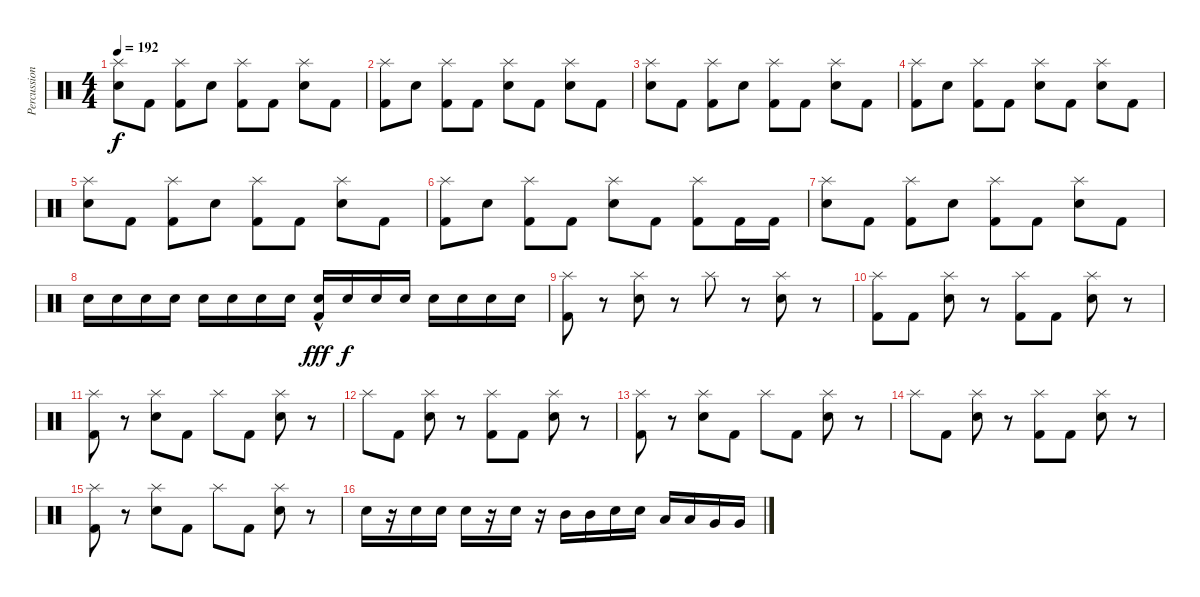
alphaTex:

\track ("Percussion" "Percussion") {instrument percussion}
\staff {score}
\articulation defaults
\ts (4 4)
\tempo 192
\clef neutral
\ks c
("Splash (hit)" "Electric Snare (hit)").8{dy f} "Kick (hit) 2".8 ("Splash (hit)" "Kick (hit) 2").8 "Electric Snare (hit)".8 ("Splash (hit)" "Kick (hit) 2").8 "Kick (hit) 2".8 ("Splash (hit)" "Electric Snare (hit)").8 "Kick (hit) 2".8 |
("Splash (hit)" "Kick (hit) 2").8 "Electric Snare (hit)".8 ("Splash (hit)" "Kick (hit) 2").8 "Kick (hit) 2".8 ("Splash (hit)" "Electric Snare (hit)").8 "Kick (hit) 2".8 ("Splash (hit)" "Electric Snare (hit)").8 "Kick (hit) 2".8 |
("Splash (hit)" "Electric Snare (hit)").8 "Kick (hit) 2".8 ("Splash (hit)" "Kick (hit) 2").8 "Electric Snare (hit)".8 ("Splash (hit)" "Kick (hit) 2").8 "Kick (hit) 2".8 ("Splash (hit)" "Electric Snare (hit)").8 "Kick (hit) 2".8 |
("Splash (hit)" "Kick (hit) 2").8 "Electric Snare (hit)".8 ("Splash (hit)" "Kick (hit) 2").8 "Kick (hit) 2".8 ("Splash (hit)" "Electric Snare (hit)").8 "Kick (hit) 2".8 ("Splash (hit)" "Electric Snare (hit)").8 "Kick (hit) 2".8 |
("Splash (hit)" "Electric Snare (hit)").8 "Kick (hit) 2".8 ("Splash (hit)" "Kick (hit) 2").8 "Electric Snare (hit)".8 ("Splash (hit)" "Kick (hit) 2").8 "Kick (hit) 2".8 ("Splash (hit)" "Electric Snare (hit)").8 "Kick (hit) 2".8 |
("Splash (hit)" "Kick (hit) 2").8 "Electric Snare (hit)".8 ("Splash (hit)" "Kick (hit) 2").8 "Kick (hit) 2".8 ("Splash (hit)" "Electric Snare (hit)").8 "Kick (hit) 2".8 ("Splash (hit)" "Kick (hit) 2").8 "Kick (hit) 2".16 "Kick (hit) 2".16 |
("Splash (hit)" "Electric Snare (hit)").8 "Kick (hit) 2".8 ("Splash (hit)" "Kick (hit) 2").8 "Electric Snare (hit)".8 ("Splash (hit)" "Kick (hit) 2").8 "Kick (hit) 2".8 ("Splash (hit)" "Electric Snare (hit)").8 "Kick (hit) 2".8 |
"Electric Snare (hit)".16 "Electric Snare (hit)".16 "Electric Snare (hit)".16 "Electric Snare (hit)".16 "Electric Snare (hit)".16 "Electric Snare (hit)".16 "Electric Snare (hit)".16 "Electric Snare (hit)".16 ("Electric Snare (hit)" "Kick (hit) 2"{hac}).16{dy fff} "Electric Snare (hit)".16{dy f} "Electric Snare (hit)".16 "Electric Snare (hit)".16 "Electric Snare (hit)".16 "Electric Snare (hit)".16 "Electric Snare (hit)".16 "Electric Snare (hit)".16 |
("Splash (hit)" "Kick (hit) 2").8 r.8 ("Splash (hit)" "Electric Snare (hit)").8 r.8 "Splash (hit)".8 r.8 ("Splash (hit)" "Electric Snare (hit)").8 r.8 |
("Splash (hit)" "Kick (hit) 2").8 "Kick (hit) 2".8 ("Splash (hit)" "Electric Snare (hit)").8 r.8 ("Splash (hit)" "Kick (hit) 2").8 "Kick (hit) 2".8 ("Splash (hit)" "Electric Snare (hit)").8 r.8 |
("Splash (hit)" "Kick (hit) 2").8 r.8 ("Splash (hit)" "Electric Snare (hit)").8 "Kick (hit) 2".8 "Splash (hit)".8 "Kick (hit) 2".8 ("Splash (hit)" "Electric Snare (hit)").8 r.8 |
"Splash (hit)".8 "Kick (hit) 2".8 ("Splash (hit)" "Electric Snare (hit)").8 r.8 ("Splash (hit)" "Kick (hit) 2").8 "Kick (hit) 2".8 ("Splash (hit)" "Electric Snare (hit)").8 r.8 |
("Splash (hit)" "Kick (hit) 2").8 r.8 ("Splash (hit)" "Electric Snare (hit)").8 "Kick (hit) 2".8 "Splash (hit)".8 "Kick (hit) 2".8 ("Splash (hit)" "Electric Snare (hit)").8 r.8 |
"Splash (hit)".8 "Kick (hit) 2".8 ("Splash (hit)" "Electric Snare (hit)").8 r.8 ("Splash (hit)" "Kick (hit) 2").8 "Kick (hit) 2".8 ("Splash (hit)" "Electric Snare (hit)").8 r.8 |
("Splash (hit)" "Kick (hit) 2").8 r.8 ("Splash (hit)" "Electric Snare (hit)").8 "Kick (hit) 2".8 "Splash (hit)".8 "Kick (hit) 2".8 ("Splash (hit)" "Electric Snare (hit)").8 r.8 |
"Electric Snare (hit)".16 r.16 "Electric Snare (hit)".16 "Electric Snare (hit)".16 "Electric Snare (hit)".16 r.16 "Electric Snare (hit)".16 r.16 "Mid Tom (hit)".16 "Mid Tom (hit)".16 "Electric Snare (hit)".16 "Electric Snare (hit)".16 "Low Tom (hit)".16 "Low Tom (hit)".16 "Very Low Tom (hit)".16 "Very Low Tom (hit)".16
